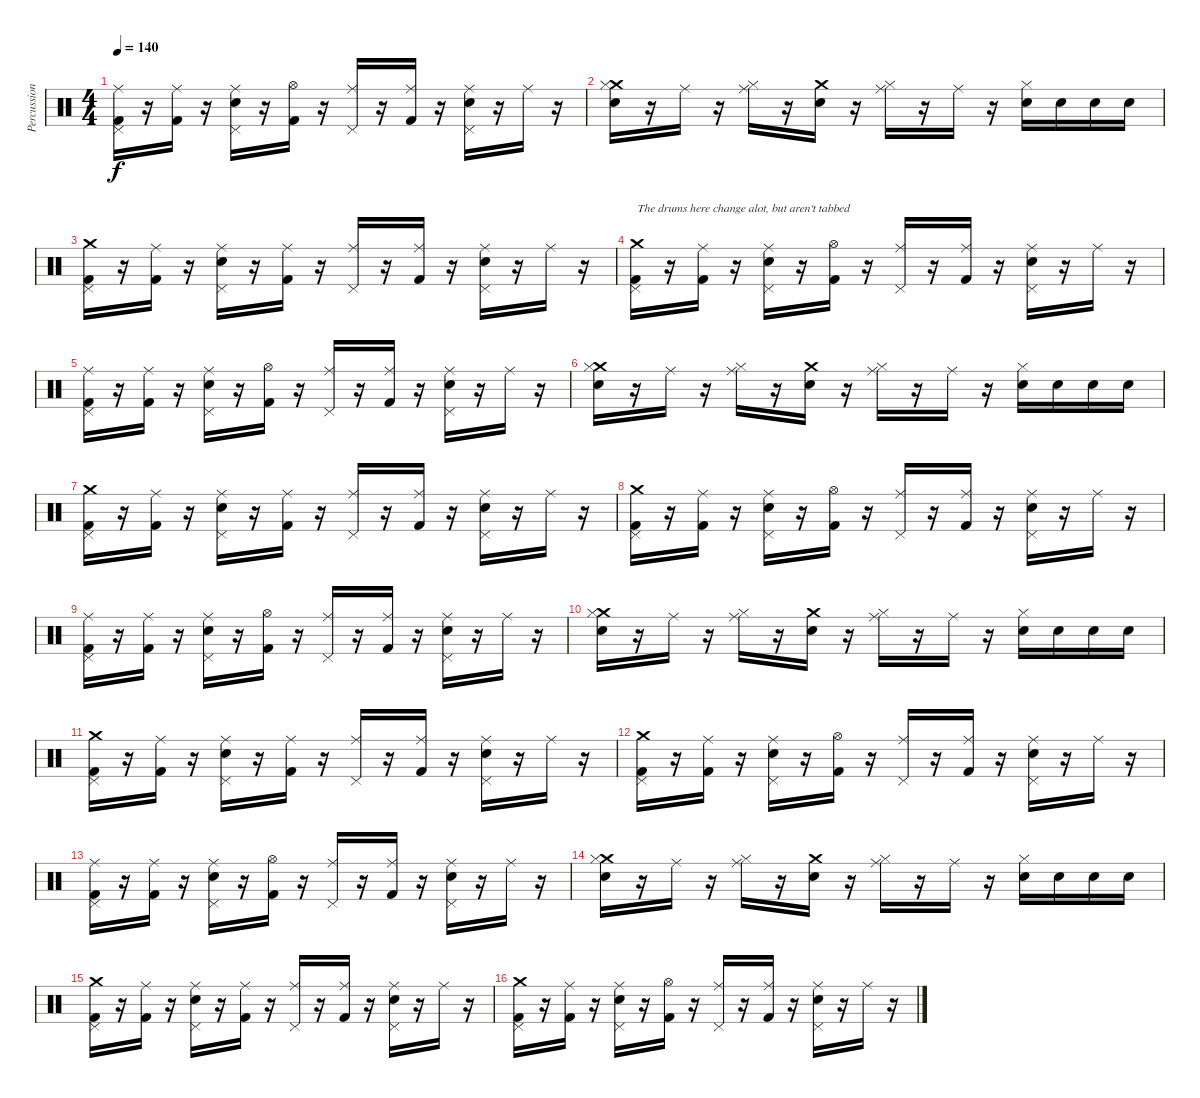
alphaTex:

\track ("Percussion" "Percussion") {instrument percussion}
\staff {score}
\articulation defaults
\ts (4 4)
\tempo 140
\clef neutral
\ks c
("Ride (middle)" "Pedal Hi-Hat (hit)" "Kick (hit) 2").16{dy f} r.16 ("Ride (middle)" "Kick (hit) 2").16 r.16 ("Ride (middle)" "Pedal Hi-Hat (hit)" "Snare (hit) 2").16 r.16 ("Hi-Hat (open)" "Kick (hit) 2").16 r.16 ("Ride (middle)" "Pedal Hi-Hat (hit)").16 r.16 ("Ride (middle)" "Kick (hit) 2").16 r.16 ("Ride (middle)" "Pedal Hi-Hat (hit)" "Snare (hit) 2").16 r.16 "Ride (middle)".16 r.16 |
("Crash medium (hit)" "Hi-Hat (closed)" "Snare (hit) 2").16 r.16 "Ride (middle)".16 r.16 ("Ride (middle)" "Hi-Hat (closed)").16 r.16 ("Crash medium (hit)" "Snare (hit) 2").16 r.16 ("Ride (middle)" "Hi-Hat (closed)").16 r.16 "Ride (middle)".16 r.16 ("Hi-Hat (closed)" "Snare (hit) 2").16 "Snare (hit) 2".16 "Snare (hit) 2".16 "Snare (hit) 2".16 |
("Crash medium (hit)" "Pedal Hi-Hat (hit)" "Kick (hit) 2").16 r.16 ("Ride (middle)" "Kick (hit) 2").16 r.16 ("Ride (middle)" "Pedal Hi-Hat (hit)" "Snare (hit) 2").16 r.16 ("Ride (middle)" "Kick (hit) 2").16 r.16 ("Ride (middle)" "Pedal Hi-Hat (hit)").16 r.16 ("Ride (middle)" "Kick (hit) 2").16 r.16 ("Ride (middle)" "Pedal Hi-Hat (hit)" "Snare (hit) 2").16 r.16 "Ride (middle)".16 r.16 |
("Crash medium (hit)" "Pedal Hi-Hat (hit)" "Kick (hit) 2").16{txt "The drums here change alot, but aren't tabbed"} r.16 ("Ride (middle)" "Kick (hit) 2").16 r.16 ("Ride (middle)" "Pedal Hi-Hat (hit)" "Snare (hit) 2").16 r.16 ("Hi-Hat (open)" "Kick (hit) 2").16 r.16 ("Ride (middle)" "Pedal Hi-Hat (hit)").16 r.16 ("Ride (middle)" "Kick (hit) 2").16 r.16 ("Ride (middle)" "Pedal Hi-Hat (hit)" "Snare (hit) 2").16 r.16 "Ride (middle)".16 r.16 |
("Ride (middle)" "Pedal Hi-Hat (hit)" "Kick (hit) 2").16 r.16 ("Ride (middle)" "Kick (hit) 2").16 r.16 ("Ride (middle)" "Pedal Hi-Hat (hit)" "Snare (hit) 2").16 r.16 ("Hi-Hat (open)" "Kick (hit) 2").16 r.16 ("Ride (middle)" "Pedal Hi-Hat (hit)").16 r.16 ("Ride (middle)" "Kick (hit) 2").16 r.16 ("Ride (middle)" "Pedal Hi-Hat (hit)" "Snare (hit) 2").16 r.16 "Ride (middle)".16 r.16 |
("Crash medium (hit)" "Hi-Hat (closed)" "Snare (hit) 2").16 r.16 "Ride (middle)".16 r.16 ("Ride (middle)" "Hi-Hat (closed)").16 r.16 ("Crash medium (hit)" "Snare (hit) 2").16 r.16 ("Ride (middle)" "Hi-Hat (closed)").16 r.16 "Ride (middle)".16 r.16 ("Hi-Hat (closed)" "Snare (hit) 2").16 "Snare (hit) 2".16 "Snare (hit) 2".16 "Snare (hit) 2".16 |
("Crash medium (hit)" "Pedal Hi-Hat (hit)" "Kick (hit) 2").16 r.16 ("Ride (middle)" "Kick (hit) 2").16 r.16 ("Ride (middle)" "Pedal Hi-Hat (hit)" "Snare (hit) 2").16 r.16 ("Ride (middle)" "Kick (hit) 2").16 r.16 ("Ride (middle)" "Pedal Hi-Hat (hit)").16 r.16 ("Ride (middle)" "Kick (hit) 2").16 r.16 ("Ride (middle)" "Pedal Hi-Hat (hit)" "Snare (hit) 2").16 r.16 "Ride (middle)".16 r.16 |
("Crash medium (hit)" "Pedal Hi-Hat (hit)" "Kick (hit) 2").16 r.16 ("Ride (middle)" "Kick (hit) 2").16 r.16 ("Ride (middle)" "Pedal Hi-Hat (hit)" "Snare (hit) 2").16 r.16 ("Hi-Hat (open)" "Kick (hit) 2").16 r.16 ("Ride (middle)" "Pedal Hi-Hat (hit)").16 r.16 ("Ride (middle)" "Kick (hit) 2").16 r.16 ("Ride (middle)" "Pedal Hi-Hat (hit)" "Snare (hit) 2").16 r.16 "Ride (middle)".16 r.16 |
("Ride (middle)" "Pedal Hi-Hat (hit)" "Kick (hit) 2").16 r.16 ("Ride (middle)" "Kick (hit) 2").16 r.16 ("Ride (middle)" "Pedal Hi-Hat (hit)" "Snare (hit) 2").16 r.16 ("Hi-Hat (open)" "Kick (hit) 2").16 r.16 ("Ride (middle)" "Pedal Hi-Hat (hit)").16 r.16 ("Ride (middle)" "Kick (hit) 2").16 r.16 ("Ride (middle)" "Pedal Hi-Hat (hit)" "Snare (hit) 2").16 r.16 "Ride (middle)".16 r.16 |
("Crash medium (hit)" "Hi-Hat (closed)" "Snare (hit) 2").16 r.16 "Ride (middle)".16 r.16 ("Ride (middle)" "Hi-Hat (closed)").16 r.16 ("Crash medium (hit)" "Snare (hit) 2").16 r.16 ("Ride (middle)" "Hi-Hat (closed)").16 r.16 "Ride (middle)".16 r.16 ("Hi-Hat (closed)" "Snare (hit) 2").16 "Snare (hit) 2".16 "Snare (hit) 2".16 "Snare (hit) 2".16 |
("Crash medium (hit)" "Pedal Hi-Hat (hit)" "Kick (hit) 2").16 r.16 ("Ride (middle)" "Kick (hit) 2").16 r.16 ("Ride (middle)" "Pedal Hi-Hat (hit)" "Snare (hit) 2").16 r.16 ("Ride (middle)" "Kick (hit) 2").16 r.16 ("Ride (middle)" "Pedal Hi-Hat (hit)").16 r.16 ("Ride (middle)" "Kick (hit) 2").16 r.16 ("Ride (middle)" "Pedal Hi-Hat (hit)" "Snare (hit) 2").16 r.16 "Ride (middle)".16 r.16 |
("Crash medium (hit)" "Pedal Hi-Hat (hit)" "Kick (hit) 2").16 r.16 ("Ride (middle)" "Kick (hit) 2").16 r.16 ("Ride (middle)" "Pedal Hi-Hat (hit)" "Snare (hit) 2").16 r.16 ("Hi-Hat (open)" "Kick (hit) 2").16 r.16 ("Ride (middle)" "Pedal Hi-Hat (hit)").16 r.16 ("Ride (middle)" "Kick (hit) 2").16 r.16 ("Ride (middle)" "Pedal Hi-Hat (hit)" "Snare (hit) 2").16 r.16 "Ride (middle)".16 r.16 |
("Ride (middle)" "Pedal Hi-Hat (hit)" "Kick (hit) 2").16 r.16 ("Ride (middle)" "Kick (hit) 2").16 r.16 ("Ride (middle)" "Pedal Hi-Hat (hit)" "Snare (hit) 2").16 r.16 ("Hi-Hat (open)" "Kick (hit) 2").16 r.16 ("Ride (middle)" "Pedal Hi-Hat (hit)").16 r.16 ("Ride (middle)" "Kick (hit) 2").16 r.16 ("Ride (middle)" "Pedal Hi-Hat (hit)" "Snare (hit) 2").16 r.16 "Ride (middle)".16 r.16 |
("Crash medium (hit)" "Hi-Hat (closed)" "Snare (hit) 2").16 r.16 "Ride (middle)".16 r.16 ("Ride (middle)" "Hi-Hat (closed)").16 r.16 ("Crash medium (hit)" "Snare (hit) 2").16 r.16 ("Ride (middle)" "Hi-Hat (closed)").16 r.16 "Ride (middle)".16 r.16 ("Hi-Hat (closed)" "Snare (hit) 2").16 "Snare (hit) 2".16 "Snare (hit) 2".16 "Snare (hit) 2".16 |
("Crash medium (hit)" "Pedal Hi-Hat (hit)" "Kick (hit) 2").16 r.16 ("Ride (middle)" "Kick (hit) 2").16 r.16 ("Ride (middle)" "Pedal Hi-Hat (hit)" "Snare (hit) 2").16 r.16 ("Ride (middle)" "Kick (hit) 2").16 r.16 ("Ride (middle)" "Pedal Hi-Hat (hit)").16 r.16 ("Ride (middle)" "Kick (hit) 2").16 r.16 ("Ride (middle)" "Pedal Hi-Hat (hit)" "Snare (hit) 2").16 r.16 "Ride (middle)".16 r.16 |
("Crash medium (hit)" "Pedal Hi-Hat (hit)" "Kick (hit) 2").16 r.16 ("Ride (middle)" "Kick (hit) 2").16 r.16 ("Ride (middle)" "Pedal Hi-Hat (hit)" "Snare (hit) 2").16 r.16 ("Hi-Hat (open)" "Kick (hit) 2").16 r.16 ("Ride (middle)" "Pedal Hi-Hat (hit)").16 r.16 ("Ride (middle)" "Kick (hit) 2").16 r.16 ("Ride (middle)" "Pedal Hi-Hat (hit)" "Snare (hit) 2").16 r.16 "Ride (middle)".16 r.16
